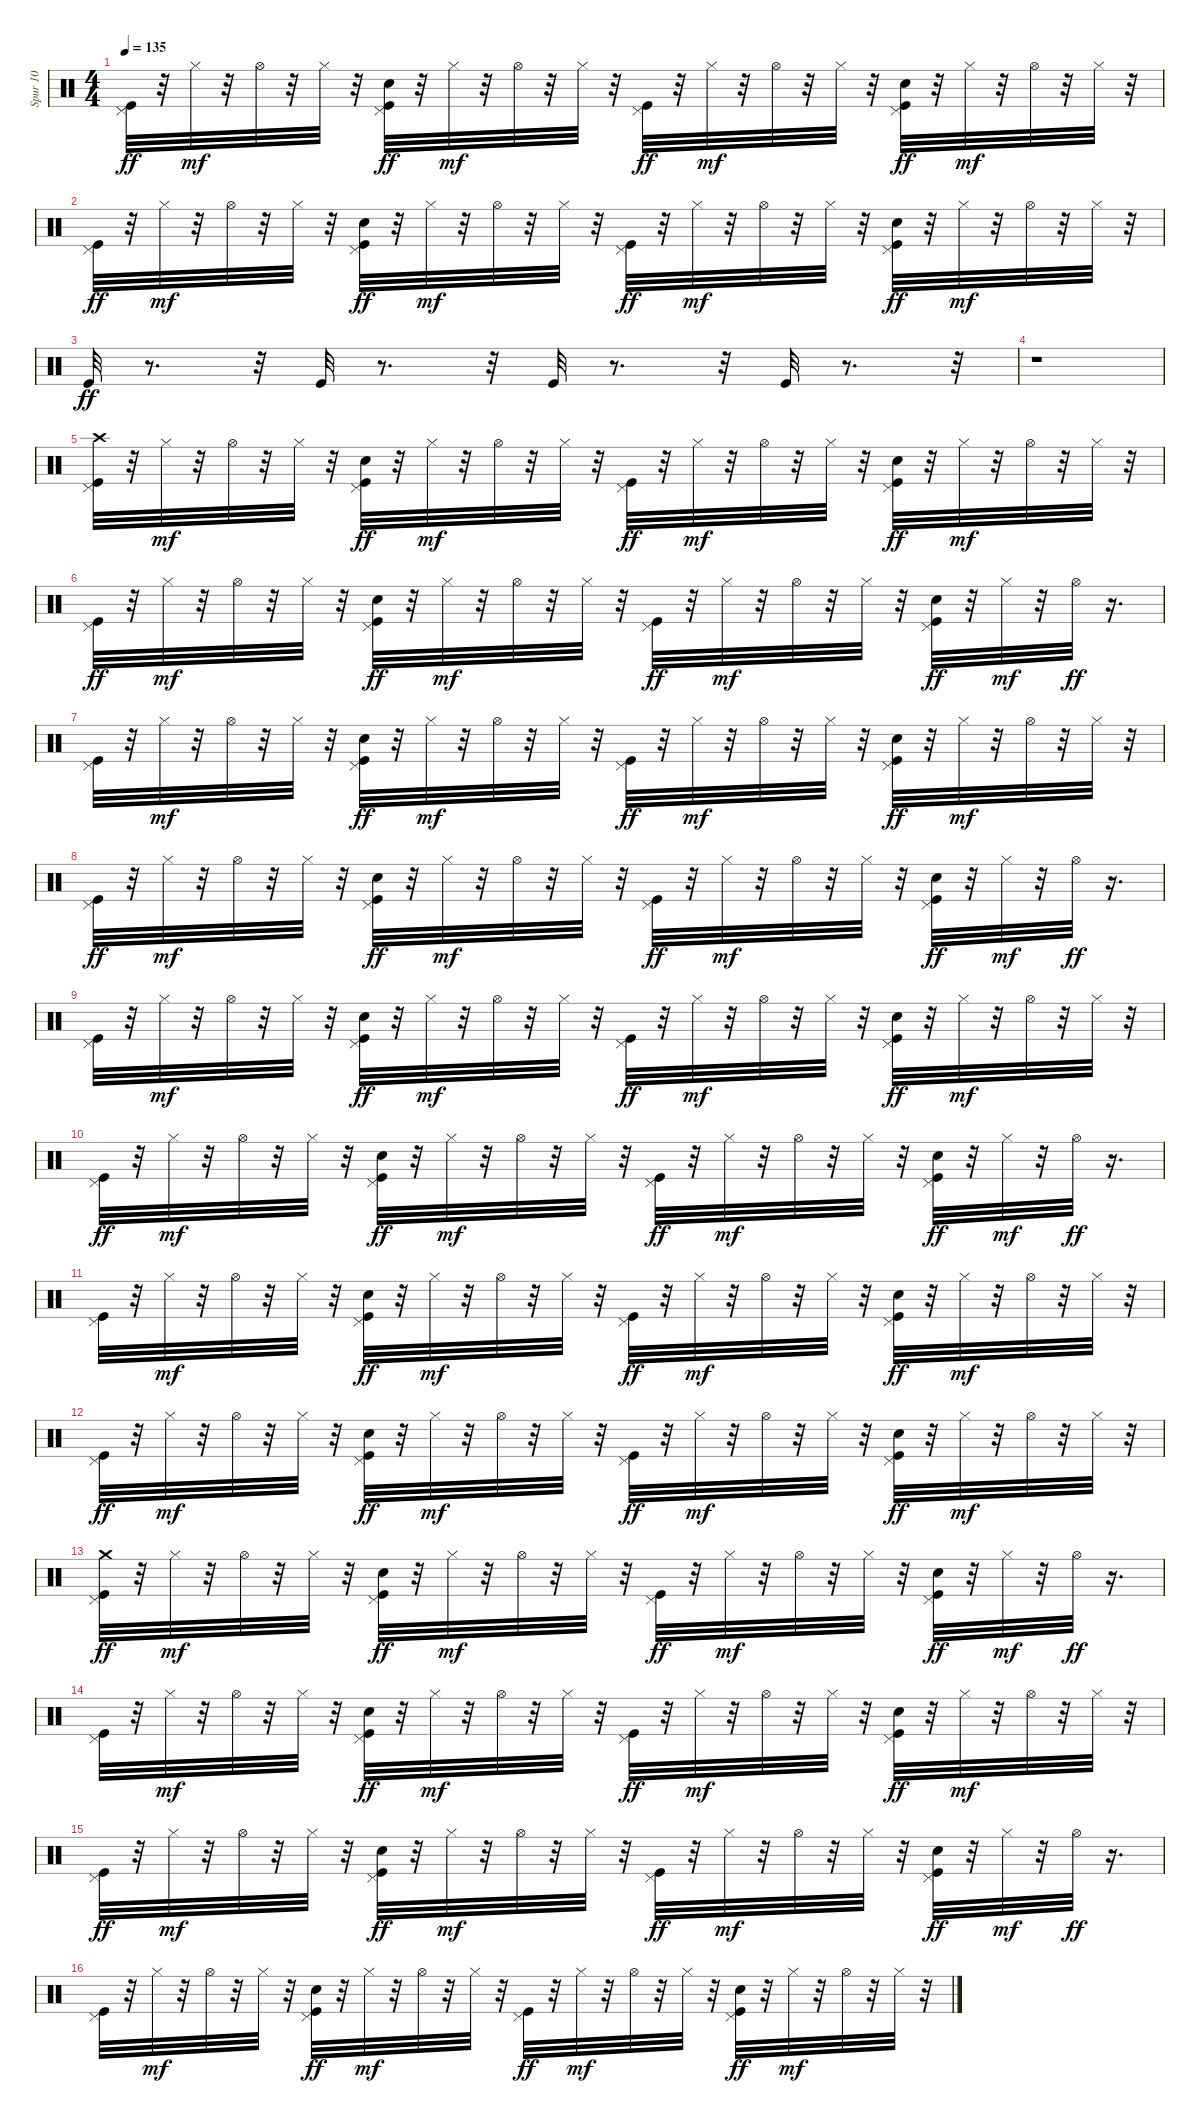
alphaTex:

\track ("Spur 10" "Spur 10") {instrument percussion}
\staff {score}
\articulation defaults
\ts (4 4)
\tempo 135
\clef neutral
\ks c
("Kick (hit)" "Pedal Hi-Hat (hit)").32{dy ff} r.32 "Hi-Hat (closed)".32{dy mf} r.32 "Hi-Hat (open)".32 r.32 "Hi-Hat (closed)".32 r.32 ("Kick (hit)" "Hand Clap (hit)" "Pedal Hi-Hat (hit)").32{dy ff} r.32 "Hi-Hat (closed)".32{dy mf} r.32 "Hi-Hat (open)".32 r.32 "Hi-Hat (closed)".32 r.32 ("Kick (hit)" "Pedal Hi-Hat (hit)").32{dy ff} r.32 "Hi-Hat (closed)".32{dy mf} r.32 "Hi-Hat (open)".32 r.32 "Hi-Hat (closed)".32 r.32 ("Kick (hit)" "Hand Clap (hit)" "Pedal Hi-Hat (hit)").32{dy ff} r.32 "Hi-Hat (closed)".32{dy mf} r.32 "Hi-Hat (open)".32 r.32 "Hi-Hat (closed)".32 r.32 |
("Kick (hit)" "Pedal Hi-Hat (hit)").32{dy ff} r.32 "Hi-Hat (closed)".32{dy mf} r.32 "Hi-Hat (open)".32 r.32 "Hi-Hat (closed)".32 r.32 ("Kick (hit)" "Hand Clap (hit)" "Pedal Hi-Hat (hit)").32{dy ff} r.32 "Hi-Hat (closed)".32{dy mf} r.32 "Hi-Hat (open)".32 r.32 "Hi-Hat (closed)".32 r.32 ("Kick (hit)" "Pedal Hi-Hat (hit)").32{dy ff} r.32 "Hi-Hat (closed)".32{dy mf} r.32 "Hi-Hat (open)".32 r.32 "Hi-Hat (closed)".32 r.32 ("Kick (hit)" "Hand Clap (hit)" "Pedal Hi-Hat (hit)").32{dy ff} r.32 "Hi-Hat (closed)".32{dy mf} r.32 "Hi-Hat (open)".32 r.32 "Hi-Hat (closed)".32 r.32 |
"Kick (hit)".32{dy ff} r.8{d} r.32 "Kick (hit)".32 r.8{d} r.32 "Kick (hit)".32 r.8{d} r.32 "Kick (hit)".32 r.8{d} r.32 |
r.1 |
("Crash high (hit)" "Kick (hit)" "Pedal Hi-Hat (hit)").32 r.32 "Hi-Hat (closed)".32{dy mf} r.32 "Hi-Hat (open)".32 r.32 "Hi-Hat (closed)".32 r.32 ("Kick (hit)" "Hand Clap (hit)" "Pedal Hi-Hat (hit)").32{dy ff} r.32 "Hi-Hat (closed)".32{dy mf} r.32 "Hi-Hat (open)".32 r.32 "Hi-Hat (closed)".32 r.32 ("Kick (hit)" "Pedal Hi-Hat (hit)").32{dy ff} r.32 "Hi-Hat (closed)".32{dy mf} r.32 "Hi-Hat (open)".32 r.32 "Hi-Hat (closed)".32 r.32 ("Kick (hit)" "Hand Clap (hit)" "Pedal Hi-Hat (hit)").32{dy ff} r.32 "Hi-Hat (closed)".32{dy mf} r.32 "Hi-Hat (open)".32 r.32 "Hi-Hat (closed)".32 r.32 |
("Kick (hit)" "Pedal Hi-Hat (hit)").32{dy ff} r.32 "Hi-Hat (closed)".32{dy mf} r.32 "Hi-Hat (open)".32 r.32 "Hi-Hat (closed)".32 r.32 ("Kick (hit)" "Hand Clap (hit)" "Pedal Hi-Hat (hit)").32{dy ff} r.32 "Hi-Hat (closed)".32{dy mf} r.32 "Hi-Hat (open)".32 r.32 "Hi-Hat (closed)".32 r.32 ("Kick (hit)" "Pedal Hi-Hat (hit)").32{dy ff} r.32 "Hi-Hat (closed)".32{dy mf} r.32 "Hi-Hat (open)".32 r.32 "Hi-Hat (closed)".32 r.32 ("Kick (hit)" "Hand Clap (hit)" "Pedal Hi-Hat (hit)").32{dy ff} r.32 "Hi-Hat (closed)".32{dy mf} r.32 "Hi-Hat (open)".32{dy ff} r.16{d} |
("Kick (hit)" "Pedal Hi-Hat (hit)").32 r.32 "Hi-Hat (closed)".32{dy mf} r.32 "Hi-Hat (open)".32 r.32 "Hi-Hat (closed)".32 r.32 ("Kick (hit)" "Hand Clap (hit)" "Pedal Hi-Hat (hit)").32{dy ff} r.32 "Hi-Hat (closed)".32{dy mf} r.32 "Hi-Hat (open)".32 r.32 "Hi-Hat (closed)".32 r.32 ("Kick (hit)" "Pedal Hi-Hat (hit)").32{dy ff} r.32 "Hi-Hat (closed)".32{dy mf} r.32 "Hi-Hat (open)".32 r.32 "Hi-Hat (closed)".32 r.32 ("Kick (hit)" "Hand Clap (hit)" "Pedal Hi-Hat (hit)").32{dy ff} r.32 "Hi-Hat (closed)".32{dy mf} r.32 "Hi-Hat (open)".32 r.32 "Hi-Hat (closed)".32 r.32 |
("Kick (hit)" "Pedal Hi-Hat (hit)").32{dy ff} r.32 "Hi-Hat (closed)".32{dy mf} r.32 "Hi-Hat (open)".32 r.32 "Hi-Hat (closed)".32 r.32 ("Kick (hit)" "Hand Clap (hit)" "Pedal Hi-Hat (hit)").32{dy ff} r.32 "Hi-Hat (closed)".32{dy mf} r.32 "Hi-Hat (open)".32 r.32 "Hi-Hat (closed)".32 r.32 ("Kick (hit)" "Pedal Hi-Hat (hit)").32{dy ff} r.32 "Hi-Hat (closed)".32{dy mf} r.32 "Hi-Hat (open)".32 r.32 "Hi-Hat (closed)".32 r.32 ("Kick (hit)" "Hand Clap (hit)" "Pedal Hi-Hat (hit)").32{dy ff} r.32 "Hi-Hat (closed)".32{dy mf} r.32 "Hi-Hat (open)".32{dy ff} r.16{d} |
("Kick (hit)" "Pedal Hi-Hat (hit)").32 r.32 "Hi-Hat (closed)".32{dy mf} r.32 "Hi-Hat (open)".32 r.32 "Hi-Hat (closed)".32 r.32 ("Kick (hit)" "Hand Clap (hit)" "Pedal Hi-Hat (hit)").32{dy ff} r.32 "Hi-Hat (closed)".32{dy mf} r.32 "Hi-Hat (open)".32 r.32 "Hi-Hat (closed)".32 r.32 ("Kick (hit)" "Pedal Hi-Hat (hit)").32{dy ff} r.32 "Hi-Hat (closed)".32{dy mf} r.32 "Hi-Hat (open)".32 r.32 "Hi-Hat (closed)".32 r.32 ("Kick (hit)" "Hand Clap (hit)" "Pedal Hi-Hat (hit)").32{dy ff} r.32 "Hi-Hat (closed)".32{dy mf} r.32 "Hi-Hat (open)".32 r.32 "Hi-Hat (closed)".32 r.32 |
("Kick (hit)" "Pedal Hi-Hat (hit)").32{dy ff} r.32 "Hi-Hat (closed)".32{dy mf} r.32 "Hi-Hat (open)".32 r.32 "Hi-Hat (closed)".32 r.32 ("Kick (hit)" "Hand Clap (hit)" "Pedal Hi-Hat (hit)").32{dy ff} r.32 "Hi-Hat (closed)".32{dy mf} r.32 "Hi-Hat (open)".32 r.32 "Hi-Hat (closed)".32 r.32 ("Kick (hit)" "Pedal Hi-Hat (hit)").32{dy ff} r.32 "Hi-Hat (closed)".32{dy mf} r.32 "Hi-Hat (open)".32 r.32 "Hi-Hat (closed)".32 r.32 ("Kick (hit)" "Hand Clap (hit)" "Pedal Hi-Hat (hit)").32{dy ff} r.32 "Hi-Hat (closed)".32{dy mf} r.32 "Hi-Hat (open)".32{dy ff} r.16{d} |
("Kick (hit)" "Pedal Hi-Hat (hit)").32 r.32 "Hi-Hat (closed)".32{dy mf} r.32 "Hi-Hat (open)".32 r.32 "Hi-Hat (closed)".32 r.32 ("Kick (hit)" "Hand Clap (hit)" "Pedal Hi-Hat (hit)").32{dy ff} r.32 "Hi-Hat (closed)".32{dy mf} r.32 "Hi-Hat (open)".32 r.32 "Hi-Hat (closed)".32 r.32 ("Kick (hit)" "Pedal Hi-Hat (hit)").32{dy ff} r.32 "Hi-Hat (closed)".32{dy mf} r.32 "Hi-Hat (open)".32 r.32 "Hi-Hat (closed)".32 r.32 ("Kick (hit)" "Hand Clap (hit)" "Pedal Hi-Hat (hit)").32{dy ff} r.32 "Hi-Hat (closed)".32{dy mf} r.32 "Hi-Hat (open)".32 r.32 "Hi-Hat (closed)".32 r.32 |
("Kick (hit)" "Pedal Hi-Hat (hit)").32{dy ff} r.32 "Hi-Hat (closed)".32{dy mf} r.32 "Hi-Hat (open)".32 r.32 "Hi-Hat (closed)".32 r.32 ("Kick (hit)" "Hand Clap (hit)" "Pedal Hi-Hat (hit)").32{dy ff} r.32 "Hi-Hat (closed)".32{dy mf} r.32 "Hi-Hat (open)".32 r.32 "Hi-Hat (closed)".32 r.32 ("Kick (hit)" "Pedal Hi-Hat (hit)").32{dy ff} r.32 "Hi-Hat (closed)".32{dy mf} r.32 "Hi-Hat (open)".32 r.32 "Hi-Hat (closed)".32 r.32 ("Kick (hit)" "Hand Clap (hit)" "Pedal Hi-Hat (hit)").32{dy ff} r.32 "Hi-Hat (closed)".32{dy mf} r.32 "Hi-Hat (open)".32 r.32 "Hi-Hat (closed)".32 r.32 |
("Crash medium (hit)" "Kick (hit)" "Pedal Hi-Hat (hit)").32{dy ff} r.32 "Hi-Hat (closed)".32{dy mf} r.32 "Hi-Hat (open)".32 r.32 "Hi-Hat (closed)".32 r.32 ("Kick (hit)" "Hand Clap (hit)" "Pedal Hi-Hat (hit)").32{dy ff} r.32 "Hi-Hat (closed)".32{dy mf} r.32 "Hi-Hat (open)".32 r.32 "Hi-Hat (closed)".32 r.32 ("Kick (hit)" "Pedal Hi-Hat (hit)").32{dy ff} r.32 "Hi-Hat (closed)".32{dy mf} r.32 "Hi-Hat (open)".32 r.32 "Hi-Hat (closed)".32 r.32 ("Kick (hit)" "Hand Clap (hit)" "Pedal Hi-Hat (hit)").32{dy ff} r.32 "Hi-Hat (closed)".32{dy mf} r.32 "Hi-Hat (open)".32{dy ff} r.16{d} |
("Kick (hit)" "Pedal Hi-Hat (hit)").32 r.32 "Hi-Hat (closed)".32{dy mf} r.32 "Hi-Hat (open)".32 r.32 "Hi-Hat (closed)".32 r.32 ("Kick (hit)" "Hand Clap (hit)" "Pedal Hi-Hat (hit)").32{dy ff} r.32 "Hi-Hat (closed)".32{dy mf} r.32 "Hi-Hat (open)".32 r.32 "Hi-Hat (closed)".32 r.32 ("Kick (hit)" "Pedal Hi-Hat (hit)").32{dy ff} r.32 "Hi-Hat (closed)".32{dy mf} r.32 "Hi-Hat (open)".32 r.32 "Hi-Hat (closed)".32 r.32 ("Kick (hit)" "Hand Clap (hit)" "Pedal Hi-Hat (hit)").32{dy ff} r.32 "Hi-Hat (closed)".32{dy mf} r.32 "Hi-Hat (open)".32 r.32 "Hi-Hat (closed)".32 r.32 |
("Kick (hit)" "Pedal Hi-Hat (hit)").32{dy ff} r.32 "Hi-Hat (closed)".32{dy mf} r.32 "Hi-Hat (open)".32 r.32 "Hi-Hat (closed)".32 r.32 ("Kick (hit)" "Hand Clap (hit)" "Pedal Hi-Hat (hit)").32{dy ff} r.32 "Hi-Hat (closed)".32{dy mf} r.32 "Hi-Hat (open)".32 r.32 "Hi-Hat (closed)".32 r.32 ("Kick (hit)" "Pedal Hi-Hat (hit)").32{dy ff} r.32 "Hi-Hat (closed)".32{dy mf} r.32 "Hi-Hat (open)".32 r.32 "Hi-Hat (closed)".32 r.32 ("Kick (hit)" "Hand Clap (hit)" "Pedal Hi-Hat (hit)").32{dy ff} r.32 "Hi-Hat (closed)".32{dy mf} r.32 "Hi-Hat (open)".32{dy ff} r.16{d} |
("Kick (hit)" "Pedal Hi-Hat (hit)").32 r.32 "Hi-Hat (closed)".32{dy mf} r.32 "Hi-Hat (open)".32 r.32 "Hi-Hat (closed)".32 r.32 ("Kick (hit)" "Hand Clap (hit)" "Pedal Hi-Hat (hit)").32{dy ff} r.32 "Hi-Hat (closed)".32{dy mf} r.32 "Hi-Hat (open)".32 r.32 "Hi-Hat (closed)".32 r.32 ("Kick (hit)" "Pedal Hi-Hat (hit)").32{dy ff} r.32 "Hi-Hat (closed)".32{dy mf} r.32 "Hi-Hat (open)".32 r.32 "Hi-Hat (closed)".32 r.32 ("Kick (hit)" "Hand Clap (hit)" "Pedal Hi-Hat (hit)").32{dy ff} r.32 "Hi-Hat (closed)".32{dy mf} r.32 "Hi-Hat (open)".32 r.32 "Hi-Hat (closed)".32 r.32
